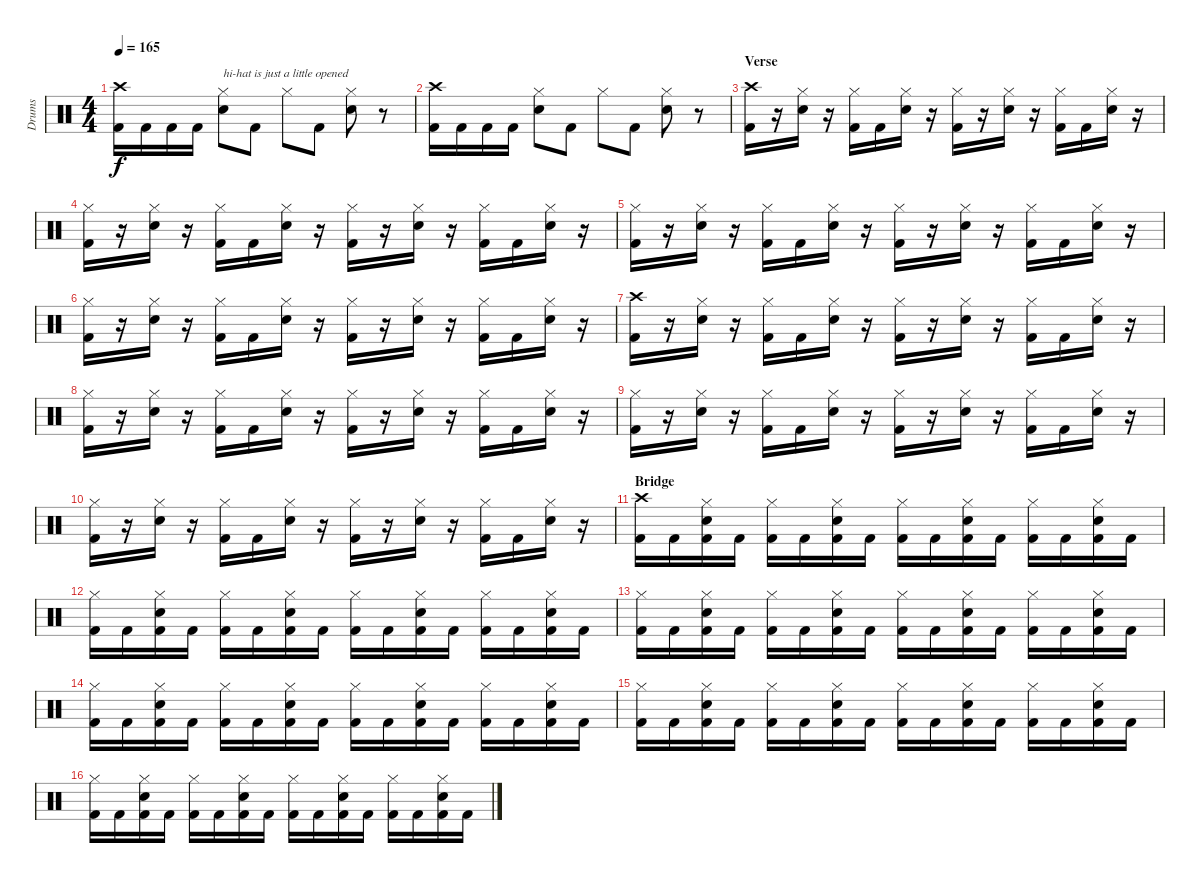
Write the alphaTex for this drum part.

\track ("Drums" "Drums") {instrument percussion}
\staff {score}
\articulation defaults
\ts (4 4)
\tempo 165
\clef neutral
\ks c
("Crash high (hit)" "Kick (hit) 2").16{dy f} "Kick (hit) 2".16 "Kick (hit) 2".16 "Kick (hit) 2".16 ("Hi-Hat (closed)" "Electric Snare (hit)").8{txt "hi-hat is just a little opened"} "Kick (hit) 2".8 "Hi-Hat (closed)".8 "Kick (hit) 2".8 ("Hi-Hat (closed)" "Electric Snare (hit)").8 r.8 |
("Crash high (hit)" "Kick (hit) 2").16 "Kick (hit) 2".16 "Kick (hit) 2".16 "Kick (hit) 2".16 ("Hi-Hat (closed)" "Electric Snare (hit)").8 "Kick (hit) 2".8 "Hi-Hat (closed)".8 "Kick (hit) 2".8 ("Hi-Hat (closed)" "Electric Snare (hit)").8 r.8 |
\section ("" "Verse")
("Crash high (hit)" "Kick (hit) 2").16 r.16 ("Hi-Hat (closed)" "Electric Snare (hit)").16 r.16 ("Hi-Hat (closed)" "Kick (hit) 2").16 "Kick (hit) 2".16 ("Hi-Hat (closed)" "Electric Snare (hit)").16 r.16 ("Hi-Hat (closed)" "Kick (hit) 2").16 r.16 ("Hi-Hat (closed)" "Electric Snare (hit)").16 r.16 ("Hi-Hat (closed)" "Kick (hit) 2").16 "Kick (hit) 2".16 ("Hi-Hat (closed)" "Electric Snare (hit)").16 r.16 |
("Hi-Hat (closed)" "Kick (hit) 2").16 r.16 ("Hi-Hat (closed)" "Electric Snare (hit)").16 r.16 ("Hi-Hat (closed)" "Kick (hit) 2").16 "Kick (hit) 2".16 ("Hi-Hat (closed)" "Electric Snare (hit)").16 r.16 ("Hi-Hat (closed)" "Kick (hit) 2").16 r.16 ("Hi-Hat (closed)" "Electric Snare (hit)").16 r.16 ("Hi-Hat (closed)" "Kick (hit) 2").16 "Kick (hit) 2".16 ("Hi-Hat (closed)" "Electric Snare (hit)").16 r.16 |
("Hi-Hat (closed)" "Kick (hit) 2").16 r.16 ("Hi-Hat (closed)" "Electric Snare (hit)").16 r.16 ("Hi-Hat (closed)" "Kick (hit) 2").16 "Kick (hit) 2".16 ("Hi-Hat (closed)" "Electric Snare (hit)").16 r.16 ("Hi-Hat (closed)" "Kick (hit) 2").16 r.16 ("Hi-Hat (closed)" "Electric Snare (hit)").16 r.16 ("Hi-Hat (closed)" "Kick (hit) 2").16 "Kick (hit) 2".16 ("Hi-Hat (closed)" "Electric Snare (hit)").16 r.16 |
("Hi-Hat (closed)" "Kick (hit) 2").16 r.16 ("Hi-Hat (closed)" "Electric Snare (hit)").16 r.16 ("Hi-Hat (closed)" "Kick (hit) 2").16 "Kick (hit) 2".16 ("Hi-Hat (closed)" "Electric Snare (hit)").16 r.16 ("Hi-Hat (closed)" "Kick (hit) 2").16 r.16 ("Hi-Hat (closed)" "Electric Snare (hit)").16 r.16 ("Hi-Hat (closed)" "Kick (hit) 2").16 "Kick (hit) 2".16 ("Hi-Hat (closed)" "Electric Snare (hit)").16 r.16 |
("Crash high (hit)" "Kick (hit) 2").16 r.16 ("Hi-Hat (closed)" "Electric Snare (hit)").16 r.16 ("Hi-Hat (closed)" "Kick (hit) 2").16 "Kick (hit) 2".16 ("Hi-Hat (closed)" "Electric Snare (hit)").16 r.16 ("Hi-Hat (closed)" "Kick (hit) 2").16 r.16 ("Hi-Hat (closed)" "Electric Snare (hit)").16 r.16 ("Hi-Hat (closed)" "Kick (hit) 2").16 "Kick (hit) 2".16 ("Hi-Hat (closed)" "Electric Snare (hit)").16 r.16 |
("Hi-Hat (closed)" "Kick (hit) 2").16 r.16 ("Hi-Hat (closed)" "Electric Snare (hit)").16 r.16 ("Hi-Hat (closed)" "Kick (hit) 2").16 "Kick (hit) 2".16 ("Hi-Hat (closed)" "Electric Snare (hit)").16 r.16 ("Hi-Hat (closed)" "Kick (hit) 2").16 r.16 ("Hi-Hat (closed)" "Electric Snare (hit)").16 r.16 ("Hi-Hat (closed)" "Kick (hit) 2").16 "Kick (hit) 2".16 ("Hi-Hat (closed)" "Electric Snare (hit)").16 r.16 |
("Hi-Hat (closed)" "Kick (hit) 2").16 r.16 ("Hi-Hat (closed)" "Electric Snare (hit)").16 r.16 ("Hi-Hat (closed)" "Kick (hit) 2").16 "Kick (hit) 2".16 ("Hi-Hat (closed)" "Electric Snare (hit)").16 r.16 ("Hi-Hat (closed)" "Kick (hit) 2").16 r.16 ("Hi-Hat (closed)" "Electric Snare (hit)").16 r.16 ("Hi-Hat (closed)" "Kick (hit) 2").16 "Kick (hit) 2".16 ("Hi-Hat (closed)" "Electric Snare (hit)").16 r.16 |
("Hi-Hat (closed)" "Kick (hit) 2").16 r.16 ("Hi-Hat (closed)" "Electric Snare (hit)").16 r.16 ("Hi-Hat (closed)" "Kick (hit) 2").16 "Kick (hit) 2".16 ("Hi-Hat (closed)" "Electric Snare (hit)").16 r.16 ("Hi-Hat (closed)" "Kick (hit) 2").16 r.16 ("Hi-Hat (closed)" "Electric Snare (hit)").16 r.16 ("Hi-Hat (closed)" "Kick (hit) 2").16 "Kick (hit) 2".16 ("Hi-Hat (closed)" "Electric Snare (hit)").16 r.16 |
\section ("" "Bridge")
("Crash high (hit)" "Kick (hit) 2").16 "Kick (hit) 2".16 ("Hi-Hat (closed)" "Electric Snare (hit)" "Kick (hit) 2").16 "Kick (hit) 2".16 ("Hi-Hat (closed)" "Kick (hit) 2").16 "Kick (hit) 2".16 ("Hi-Hat (closed)" "Electric Snare (hit)" "Kick (hit) 2").16 "Kick (hit) 2".16 ("Hi-Hat (closed)" "Kick (hit) 2").16 "Kick (hit) 2".16 ("Hi-Hat (closed)" "Electric Snare (hit)" "Kick (hit) 2").16 "Kick (hit) 2".16 ("Hi-Hat (closed)" "Kick (hit) 2").16 "Kick (hit) 2".16 ("Hi-Hat (closed)" "Electric Snare (hit)" "Kick (hit) 2").16 "Kick (hit) 2".16 |
("Hi-Hat (closed)" "Kick (hit) 2").16 "Kick (hit) 2".16 ("Hi-Hat (closed)" "Electric Snare (hit)" "Kick (hit) 2").16 "Kick (hit) 2".16 ("Hi-Hat (closed)" "Kick (hit) 2").16 "Kick (hit) 2".16 ("Hi-Hat (closed)" "Electric Snare (hit)" "Kick (hit) 2").16 "Kick (hit) 2".16 ("Hi-Hat (closed)" "Kick (hit) 2").16 "Kick (hit) 2".16 ("Hi-Hat (closed)" "Electric Snare (hit)" "Kick (hit) 2").16 "Kick (hit) 2".16 ("Hi-Hat (closed)" "Kick (hit) 2").16 "Kick (hit) 2".16 ("Hi-Hat (closed)" "Electric Snare (hit)" "Kick (hit) 2").16 "Kick (hit) 2".16 |
("Hi-Hat (closed)" "Kick (hit) 2").16 "Kick (hit) 2".16 ("Hi-Hat (closed)" "Electric Snare (hit)" "Kick (hit) 2").16 "Kick (hit) 2".16 ("Hi-Hat (closed)" "Kick (hit) 2").16 "Kick (hit) 2".16 ("Hi-Hat (closed)" "Electric Snare (hit)" "Kick (hit) 2").16 "Kick (hit) 2".16 ("Hi-Hat (closed)" "Kick (hit) 2").16 "Kick (hit) 2".16 ("Hi-Hat (closed)" "Electric Snare (hit)" "Kick (hit) 2").16 "Kick (hit) 2".16 ("Hi-Hat (closed)" "Kick (hit) 2").16 "Kick (hit) 2".16 ("Hi-Hat (closed)" "Electric Snare (hit)" "Kick (hit) 2").16 "Kick (hit) 2".16 |
("Hi-Hat (closed)" "Kick (hit) 2").16 "Kick (hit) 2".16 ("Hi-Hat (closed)" "Electric Snare (hit)" "Kick (hit) 2").16 "Kick (hit) 2".16 ("Hi-Hat (closed)" "Kick (hit) 2").16 "Kick (hit) 2".16 ("Hi-Hat (closed)" "Electric Snare (hit)" "Kick (hit) 2").16 "Kick (hit) 2".16 ("Hi-Hat (closed)" "Kick (hit) 2").16 "Kick (hit) 2".16 ("Hi-Hat (closed)" "Electric Snare (hit)" "Kick (hit) 2").16 "Kick (hit) 2".16 ("Hi-Hat (closed)" "Kick (hit) 2").16 "Kick (hit) 2".16 ("Hi-Hat (closed)" "Electric Snare (hit)" "Kick (hit) 2").16 "Kick (hit) 2".16 |
("Hi-Hat (closed)" "Kick (hit) 2").16 "Kick (hit) 2".16 ("Hi-Hat (closed)" "Electric Snare (hit)" "Kick (hit) 2").16 "Kick (hit) 2".16 ("Hi-Hat (closed)" "Kick (hit) 2").16 "Kick (hit) 2".16 ("Hi-Hat (closed)" "Electric Snare (hit)" "Kick (hit) 2").16 "Kick (hit) 2".16 ("Hi-Hat (closed)" "Kick (hit) 2").16 "Kick (hit) 2".16 ("Hi-Hat (closed)" "Electric Snare (hit)" "Kick (hit) 2").16 "Kick (hit) 2".16 ("Hi-Hat (closed)" "Kick (hit) 2").16 "Kick (hit) 2".16 ("Hi-Hat (closed)" "Electric Snare (hit)" "Kick (hit) 2").16 "Kick (hit) 2".16 |
("Hi-Hat (closed)" "Kick (hit) 2").16 "Kick (hit) 2".16 ("Hi-Hat (closed)" "Electric Snare (hit)" "Kick (hit) 2").16 "Kick (hit) 2".16 ("Hi-Hat (closed)" "Kick (hit) 2").16 "Kick (hit) 2".16 ("Hi-Hat (closed)" "Electric Snare (hit)" "Kick (hit) 2").16 "Kick (hit) 2".16 ("Hi-Hat (closed)" "Kick (hit) 2").16 "Kick (hit) 2".16 ("Hi-Hat (closed)" "Electric Snare (hit)" "Kick (hit) 2").16 "Kick (hit) 2".16 ("Hi-Hat (closed)" "Kick (hit) 2").16 "Kick (hit) 2".16 ("Hi-Hat (closed)" "Electric Snare (hit)" "Kick (hit) 2").16 "Kick (hit) 2".16
